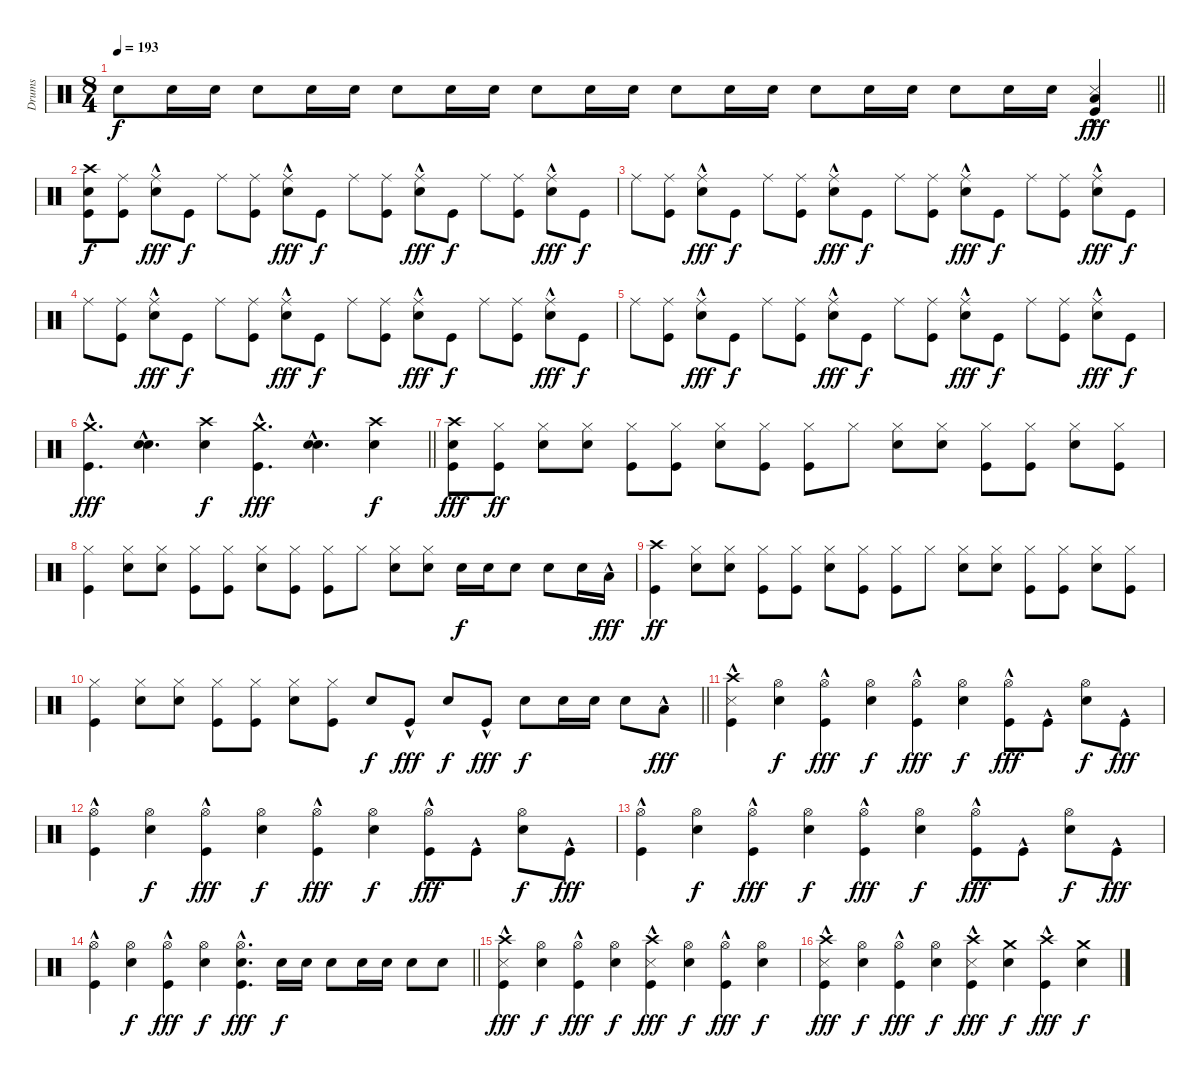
\track ("Drums" "Drums") {instrument percussion}
\staff {score}
\articulation defaults
\ts (8 4)
\tempo 193
\clef neutral
\barLineRight lightlight
\ks c "Snare (hit) 2".8{dy f} "Snare (hit) 2".16 "Snare (hit) 2".16 "Snare (hit) 2".8 "Snare (hit) 2".16 "Snare (hit) 2".16 "Snare (hit) 2".8 "Snare (hit) 2".16 "Snare (hit) 2".16 "Snare (hit) 2".8 "Snare (hit) 2".16 "Snare (hit) 2".16 "Snare (hit) 2".8 "Snare (hit) 2".16 "Snare (hit) 2".16 "Snare (hit) 2".8 "Snare (hit) 2".16 "Snare (hit) 2".16 "Snare (hit) 2".8 "Snare (hit) 2".16 "Snare (hit) 2".16
("Snare (side stick) 3" "Low Tom (hit)"{hac} "Kick (hit)").4{dy fff} |
("Crash high (hit)" "Snare (hit) 2" "Kick (hit)").8{dy f} ("Ride (middle)" "Kick (hit)").8 ("Ride (middle)" "Snare (hit) 2"{hac}).8{dy fff} "Kick (hit)".8{dy f} "Ride (middle)".8 ("Ride (middle)" "Kick (hit)").8 ("Ride (middle)" "Snare (hit) 2"{hac}).8{dy fff} "Kick (hit)".8{dy f} "Ride (middle)".8 ("Ride (middle)" "Kick (hit)").8 ("Ride (middle)" "Snare (hit) 2"{hac}).8{dy fff} "Kick (hit)".8{dy f} "Ride (middle)".8 ("Ride (middle)" "Kick (hit)").8 ("Ride (middle)" "Snare (hit) 2"{hac}).8{dy fff} "Kick (hit)".8{dy f} |
"Ride (middle)".8 ("Ride (middle)" "Kick (hit)").8 ("Ride (middle)" "Snare (hit) 2"{hac}).8{dy fff} "Kick (hit)".8{dy f} "Ride (middle)".8 ("Ride (middle)" "Kick (hit)").8 ("Ride (middle)" "Snare (hit) 2"{hac}).8{dy fff} "Kick (hit)".8{dy f} "Ride (middle)".8 ("Ride (middle)" "Kick (hit)").8 ("Ride (middle)" "Snare (hit) 2"{hac}).8{dy fff} "Kick (hit)".8{dy f} "Ride (middle)".8 ("Ride (middle)" "Kick (hit)").8 ("Ride (middle)" "Snare (hit) 2"{hac}).8{dy fff} "Kick (hit)".8{dy f} |
"Ride (middle)".8 ("Ride (middle)" "Kick (hit)").8 ("Ride (middle)" "Snare (hit) 2"{hac}).8{dy fff} "Kick (hit)".8{dy f} "Ride (middle)".8 ("Ride (middle)" "Kick (hit)").8 ("Ride (middle)" "Snare (hit) 2"{hac}).8{dy fff} "Kick (hit)".8{dy f} "Ride (middle)".8 ("Ride (middle)" "Kick (hit)").8 ("Ride (middle)" "Snare (hit) 2"{hac}).8{dy fff} "Kick (hit)".8{dy f} "Ride (middle)".8 ("Ride (middle)" "Kick (hit)").8 ("Ride (middle)" "Snare (hit) 2"{hac}).8{dy fff} "Kick (hit)".8{dy f} |
"Ride (middle)".8 ("Ride (middle)" "Kick (hit)").8 ("Ride (middle)" "Snare (hit) 2"{hac}).8{dy fff} "Kick (hit)".8{dy f} "Ride (middle)".8 ("Ride (middle)" "Kick (hit)").8 ("Ride (middle)" "Snare (hit) 2"{hac}).8{dy fff} "Kick (hit)".8{dy f} "Ride (middle)".8 ("Ride (middle)" "Kick (hit)").8 ("Ride (middle)" "Snare (hit) 2"{hac}).8{dy fff} "Kick (hit)".8{dy f} "Ride (middle)".8 ("Ride (middle)" "Kick (hit)").8 ("Ride (middle)" "Snare (hit) 2"{hac}).8{dy fff} "Kick (hit)".8{dy f} |
\barLineRight lightlight
("Crash medium (hit)" "Kick (hit)"{hac}).4{d dy fff} ("Snare (hit) 2"{hac} "Snare (hit) 2").4{d bd 480} ("Crash high (hit)" "Snare (hit) 2").4{bd 480 dy f} ("Crash medium (hit)" "Kick (hit)"{hac}).4{d dy fff} ("Snare (hit) 2"{hac} "Snare (hit) 2").4{d bd 480} ("Crash high (hit)" "Snare (hit) 2").4{bd 480 dy f} |
("Crash high (hit)" "Snare (hit) 2" "Kick (hit)").8{dy fff} ("Hi-Hat (closed)" "Kick (hit)").8{dy ff} ("Hi-Hat (closed)" "Snare (hit) 2").8 ("Hi-Hat (closed)" "Snare (hit) 2").8 ("Hi-Hat (closed)" "Kick (hit)").8 ("Hi-Hat (closed)" "Kick (hit)").8 ("Hi-Hat (closed)" "Snare (hit) 2").8 ("Hi-Hat (closed)" "Kick (hit)").8 ("Hi-Hat (closed)" "Kick (hit)").8 "Hi-Hat (closed)".8 ("Hi-Hat (closed)" "Snare (hit) 2").8 ("Hi-Hat (closed)" "Snare (hit) 2").8 ("Hi-Hat (closed)" "Kick (hit)").8 ("Hi-Hat (closed)" "Kick (hit)").8 ("Hi-Hat (closed)" "Snare (hit) 2").8 ("Hi-Hat (closed)" "Kick (hit)").8 |
("Hi-Hat (closed)" "Kick (hit)").4 ("Hi-Hat (closed)" "Snare (hit) 2").8 ("Hi-Hat (closed)" "Snare (hit) 2").8 ("Hi-Hat (closed)" "Kick (hit)").8 ("Hi-Hat (closed)" "Kick (hit)").8 ("Hi-Hat (closed)" "Snare (hit) 2").8 ("Hi-Hat (closed)" "Kick (hit)").8 ("Hi-Hat (closed)" "Kick (hit)").8 "Hi-Hat (closed)".8 ("Hi-Hat (closed)" "Snare (hit) 2").8 ("Hi-Hat (closed)" "Snare (hit) 2").8 "Snare (hit) 2".16{dy f} "Snare (hit) 2".16 "Snare (hit) 2".8 "Snare (hit) 2".8 "Snare (hit) 2".16 "Low Tom (hit)"{hac}.16{dy fff} |
("Crash high (hit)" "Kick (hit)").4{dy ff} ("Hi-Hat (closed)" "Snare (hit) 2").8 ("Hi-Hat (closed)" "Snare (hit) 2").8 ("Hi-Hat (closed)" "Kick (hit)").8 ("Hi-Hat (closed)" "Kick (hit)").8 ("Hi-Hat (closed)" "Snare (hit) 2").8 ("Hi-Hat (closed)" "Kick (hit)").8 ("Hi-Hat (closed)" "Kick (hit)").8 "Hi-Hat (closed)".8 ("Hi-Hat (closed)" "Snare (hit) 2").8 ("Hi-Hat (closed)" "Snare (hit) 2").8 ("Hi-Hat (closed)" "Kick (hit)").8 ("Hi-Hat (closed)" "Kick (hit)").8 ("Hi-Hat (closed)" "Snare (hit) 2").8 ("Hi-Hat (closed)" "Kick (hit)").8 |
\barLineRight lightlight
("Hi-Hat (closed)" "Kick (hit)").4 ("Hi-Hat (closed)" "Snare (hit) 2").8 ("Hi-Hat (closed)" "Snare (hit) 2").8 ("Hi-Hat (closed)" "Kick (hit)").8 ("Hi-Hat (closed)" "Kick (hit)").8 ("Hi-Hat (closed)" "Snare (hit) 2").8 ("Hi-Hat (closed)" "Kick (hit)").8 "Snare (hit) 2".8{dy f} "Kick (hit)"{hac}.8{dy fff} "Snare (hit) 2".8{dy f} "Kick (hit)"{hac}.8{dy fff} "Snare (hit) 2".8{dy f} "Snare (hit) 2".16 "Snare (hit) 2".16 "Snare (hit) 2".8 "Low Tom (hit)"{hac}.8{dy fff} |
("Snare (side stick) 3" "Crash high (hit)" "Kick (hit)"{hac}).4 ("Hi-Hat (open)" "Snare (hit) 2").4{dy f} ("Hi-Hat (open)" "Kick (hit)"{hac}).4{dy fff} ("Hi-Hat (open)" "Snare (hit) 2").4{dy f} ("Hi-Hat (open)" "Kick (hit)"{hac}).4{dy fff} ("Hi-Hat (open)" "Snare (hit) 2").4{dy f} ("Hi-Hat (open)" "Kick (hit)"{hac}).8{dy fff} "Kick (hit)"{hac}.8 ("Hi-Hat (open)" "Snare (hit) 2").8{dy f} "Kick (hit)"{hac}.8{dy fff} |
("Hi-Hat (open)" "Kick (hit)"{hac}).4 ("Hi-Hat (open)" "Snare (hit) 2").4{dy f} ("Hi-Hat (open)" "Kick (hit)"{hac}).4{dy fff} ("Hi-Hat (open)" "Snare (hit) 2").4{dy f} ("Hi-Hat (open)" "Kick (hit)"{hac}).4{dy fff} ("Hi-Hat (open)" "Snare (hit) 2").4{dy f} ("Hi-Hat (open)" "Kick (hit)"{hac}).8{dy fff} "Kick (hit)"{hac}.8 ("Hi-Hat (open)" "Snare (hit) 2").8{dy f} "Kick (hit)"{hac}.8{dy fff} |
("Hi-Hat (open)" "Kick (hit)"{hac}).4 ("Hi-Hat (open)" "Snare (hit) 2").4{dy f} ("Hi-Hat (open)" "Kick (hit)"{hac}).4{dy fff} ("Hi-Hat (open)" "Snare (hit) 2").4{dy f} ("Hi-Hat (open)" "Kick (hit)"{hac}).4{dy fff} ("Hi-Hat (open)" "Snare (hit) 2").4{dy f} ("Hi-Hat (open)" "Kick (hit)"{hac}).8{dy fff} "Kick (hit)"{hac}.8 ("Hi-Hat (open)" "Snare (hit) 2").8{dy f} "Kick (hit)"{hac}.8{dy fff} |
\barLineRight lightlight
("Hi-Hat (open)" "Kick (hit)"{hac}).4 ("Hi-Hat (open)" "Snare (hit) 2").4{dy f} ("Hi-Hat (open)" "Kick (hit)"{hac}).4{dy fff} ("Hi-Hat (open)" "Snare (hit) 2").4{dy f} ("Hi-Hat (open)" "Snare (hit) 2" "Kick (hit)"{hac}).4{d dy fff} "Snare (hit) 2".16{dy f} "Snare (hit) 2".16 "Snare (hit) 2".8 "Snare (hit) 2".16 "Snare (hit) 2".16 "Snare (hit) 2".8 "Snare (hit) 2".8 |
("Snare (side stick) 3" "Crash high (hit)" "Kick (hit)"{hac}).4{dy fff} ("Hi-Hat (open)" "Snare (hit) 2").4{dy f} ("Hi-Hat (open)" "Kick (hit)"{hac}).4{dy fff} ("Hi-Hat (open)" "Snare (hit) 2").4{dy f} ("Snare (side stick) 3" "Crash high (hit)" "Kick (hit)"{hac}).4{dy fff} ("Hi-Hat (open)" "Snare (hit) 2").4{dy f} ("Hi-Hat (open)" "Kick (hit)"{hac}).4{dy fff} ("Hi-Hat (open)" "Snare (hit) 2").4{dy f} |
("Snare (side stick) 3" "Crash high (hit)" "Kick (hit)"{hac}).4{dy fff} ("Hi-Hat (open)" "Snare (hit) 2").4{dy f} ("Hi-Hat (open)" "Kick (hit)"{hac}).4{dy fff} ("Hi-Hat (open)" "Snare (hit) 2").4{dy f} ("Snare (side stick) 3" "Crash high (hit)" "Kick (hit)"{hac}).4{dy fff} ("Crash medium (hit)" "Snare (hit) 2").4{dy f} ("Crash high (hit)" "Kick (hit)"{hac}).4{dy fff} ("Crash medium (hit)" "Snare (hit) 2").4{dy f}
